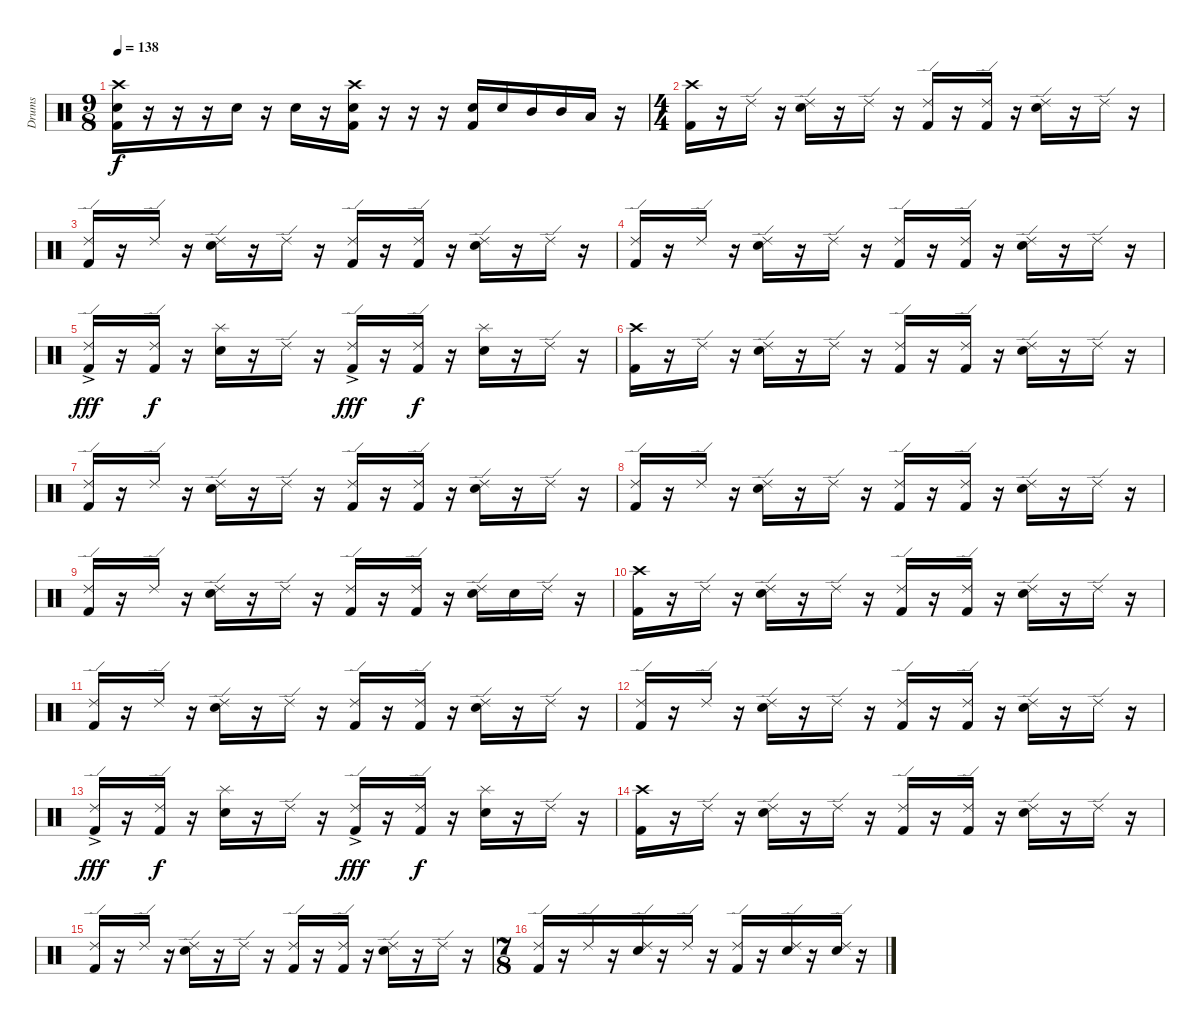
\track ("Drums" "Drums") {instrument percussion}
\staff {score}
\articulation defaults
\ts (9 8)
\tempo 138
\clef neutral
\ks c
("Crash high (hit)" "Snare (hit) 2" "Kick (hit) 2").16{dy f} r.16 r.16 r.16 "Snare (hit) 2".16 r.16 "Snare (hit) 2".16 r.16 ("Crash high (hit)" "Snare (hit) 2" "Kick (hit) 2").16 r.16 r.16 r.16 ("Snare (hit) 2" "Kick (hit) 2").16 "Snare (hit) 2".16 "Mid Tom (hit)".16 "Mid Tom (hit)".16 "Low Tom (hit)".16 r.16 |
\ts (4 4)
\section ("" "")
("Crash high (hit)" "Kick (hit) 2").16 r.16 "Ride (edge) 2".16 r.16 ("Ride (edge) 2" "Snare (hit) 2").16 r.16 "Ride (edge) 2".16 r.16 ("Ride (edge) 2" "Kick (hit) 2").16 r.16 ("Ride (edge) 2" "Kick (hit) 2").16 r.16 ("Ride (edge) 2" "Snare (hit) 2").16 r.16 "Ride (edge) 2".16 r.16 |
("Ride (edge) 2" "Kick (hit) 2").16 r.16 "Ride (edge) 2".16 r.16 ("Ride (edge) 2" "Snare (hit) 2").16 r.16 "Ride (edge) 2".16 r.16 ("Ride (edge) 2" "Kick (hit) 2").16 r.16 ("Ride (edge) 2" "Kick (hit) 2").16 r.16 ("Ride (edge) 2" "Snare (hit) 2").16 r.16 "Ride (edge) 2".16 r.16 |
("Ride (edge) 2" "Kick (hit) 2").16 r.16 "Ride (edge) 2".16 r.16 ("Ride (edge) 2" "Snare (hit) 2").16 r.16 "Ride (edge) 2".16 r.16 ("Ride (edge) 2" "Kick (hit) 2").16 r.16 ("Ride (edge) 2" "Kick (hit) 2").16 r.16 ("Ride (edge) 2" "Snare (hit) 2").16 r.16 "Ride (edge) 2".16 r.16 |
("Ride (edge) 2" "Kick (hit) 2"{ac}).16{dy fff} r.16 ("Ride (edge) 2" "Kick (hit) 2").16{dy f} r.16 ("Splash (hit)" "Snare (hit) 2").16 r.16 "Ride (edge) 2".16 r.16 ("Ride (edge) 2" "Kick (hit) 2"{ac}).16{dy fff} r.16 ("Ride (edge) 2" "Kick (hit) 2").16{dy f} r.16 ("Splash (hit)" "Snare (hit) 2").16 r.16 "Ride (edge) 2".16 r.16 |
("Crash high (hit)" "Kick (hit) 2").16 r.16 "Ride (edge) 2".16 r.16 ("Ride (edge) 2" "Snare (hit) 2").16 r.16 "Ride (edge) 2".16 r.16 ("Ride (edge) 2" "Kick (hit) 2").16 r.16 ("Ride (edge) 2" "Kick (hit) 2").16 r.16 ("Ride (edge) 2" "Snare (hit) 2").16 r.16 "Ride (edge) 2".16 r.16 |
("Ride (edge) 2" "Kick (hit) 2").16 r.16 "Ride (edge) 2".16 r.16 ("Ride (edge) 2" "Snare (hit) 2").16 r.16 "Ride (edge) 2".16 r.16 ("Ride (edge) 2" "Kick (hit) 2").16 r.16 ("Ride (edge) 2" "Kick (hit) 2").16 r.16 ("Ride (edge) 2" "Snare (hit) 2").16 r.16 "Ride (edge) 2".16 r.16 |
("Ride (edge) 2" "Kick (hit) 2").16 r.16 "Ride (edge) 2".16 r.16 ("Ride (edge) 2" "Snare (hit) 2").16 r.16 "Ride (edge) 2".16 r.16 ("Ride (edge) 2" "Kick (hit) 2").16 r.16 ("Ride (edge) 2" "Kick (hit) 2").16 r.16 ("Ride (edge) 2" "Snare (hit) 2").16 r.16 "Ride (edge) 2".16 r.16 |
("Ride (edge) 2" "Kick (hit) 2").16 r.16 "Ride (edge) 2".16 r.16 ("Ride (edge) 2" "Snare (hit) 2").16 r.16 "Ride (edge) 2".16 r.16 ("Ride (edge) 2" "Kick (hit) 2").16 r.16 ("Ride (edge) 2" "Kick (hit) 2").16 r.16 ("Ride (edge) 2" "Snare (hit) 2").16 "Snare (hit) 2".16 "Ride (edge) 2".16 r.16 |
("Crash high (hit)" "Kick (hit) 2").16 r.16 "Ride (edge) 2".16 r.16 ("Ride (edge) 2" "Snare (hit) 2").16 r.16 "Ride (edge) 2".16 r.16 ("Ride (edge) 2" "Kick (hit) 2").16 r.16 ("Ride (edge) 2" "Kick (hit) 2").16 r.16 ("Ride (edge) 2" "Snare (hit) 2").16 r.16 "Ride (edge) 2".16 r.16 |
("Ride (edge) 2" "Kick (hit) 2").16 r.16 "Ride (edge) 2".16 r.16 ("Ride (edge) 2" "Snare (hit) 2").16 r.16 "Ride (edge) 2".16 r.16 ("Ride (edge) 2" "Kick (hit) 2").16 r.16 ("Ride (edge) 2" "Kick (hit) 2").16 r.16 ("Ride (edge) 2" "Snare (hit) 2").16 r.16 "Ride (edge) 2".16 r.16 |
("Ride (edge) 2" "Kick (hit) 2").16 r.16 "Ride (edge) 2".16 r.16 ("Ride (edge) 2" "Snare (hit) 2").16 r.16 "Ride (edge) 2".16 r.16 ("Ride (edge) 2" "Kick (hit) 2").16 r.16 ("Ride (edge) 2" "Kick (hit) 2").16 r.16 ("Ride (edge) 2" "Snare (hit) 2").16 r.16 "Ride (edge) 2".16 r.16 |
("Ride (edge) 2" "Kick (hit) 2"{ac}).16{dy fff} r.16 ("Ride (edge) 2" "Kick (hit) 2").16{dy f} r.16 ("Splash (hit)" "Snare (hit) 2").16 r.16 "Ride (edge) 2".16 r.16 ("Ride (edge) 2" "Kick (hit) 2"{ac}).16{dy fff} r.16 ("Ride (edge) 2" "Kick (hit) 2").16{dy f} r.16 ("Splash (hit)" "Snare (hit) 2").16 r.16 "Ride (edge) 2".16 r.16 |
("Crash high (hit)" "Kick (hit) 2").16 r.16 "Ride (edge) 2".16 r.16 ("Ride (edge) 2" "Snare (hit) 2").16 r.16 "Ride (edge) 2".16 r.16 ("Ride (edge) 2" "Kick (hit) 2").16 r.16 ("Ride (edge) 2" "Kick (hit) 2").16 r.16 ("Ride (edge) 2" "Snare (hit) 2").16 r.16 "Ride (edge) 2".16 r.16 |
("Ride (edge) 2" "Kick (hit) 2").16 r.16 "Ride (edge) 2".16 r.16 ("Ride (edge) 2" "Snare (hit) 2").16 r.16 "Ride (edge) 2".16 r.16 ("Ride (edge) 2" "Kick (hit) 2").16 r.16 ("Ride (edge) 2" "Kick (hit) 2").16 r.16 ("Ride (edge) 2" "Snare (hit) 2").16 r.16 "Ride (edge) 2".16 r.16 |
\ts (7 8)
("Ride (edge) 2" "Kick (hit) 2").16 r.16 "Ride (edge) 2".16 r.16 ("Ride (edge) 2" "Snare (hit) 2").16 r.16 "Ride (edge) 2".16 r.16 ("Ride (edge) 2" "Kick (hit) 2").16 r.16 ("Ride (edge) 2" "Snare (hit) 2").16 r.16 ("Ride (edge) 2" "Snare (hit) 2").16 r.16
